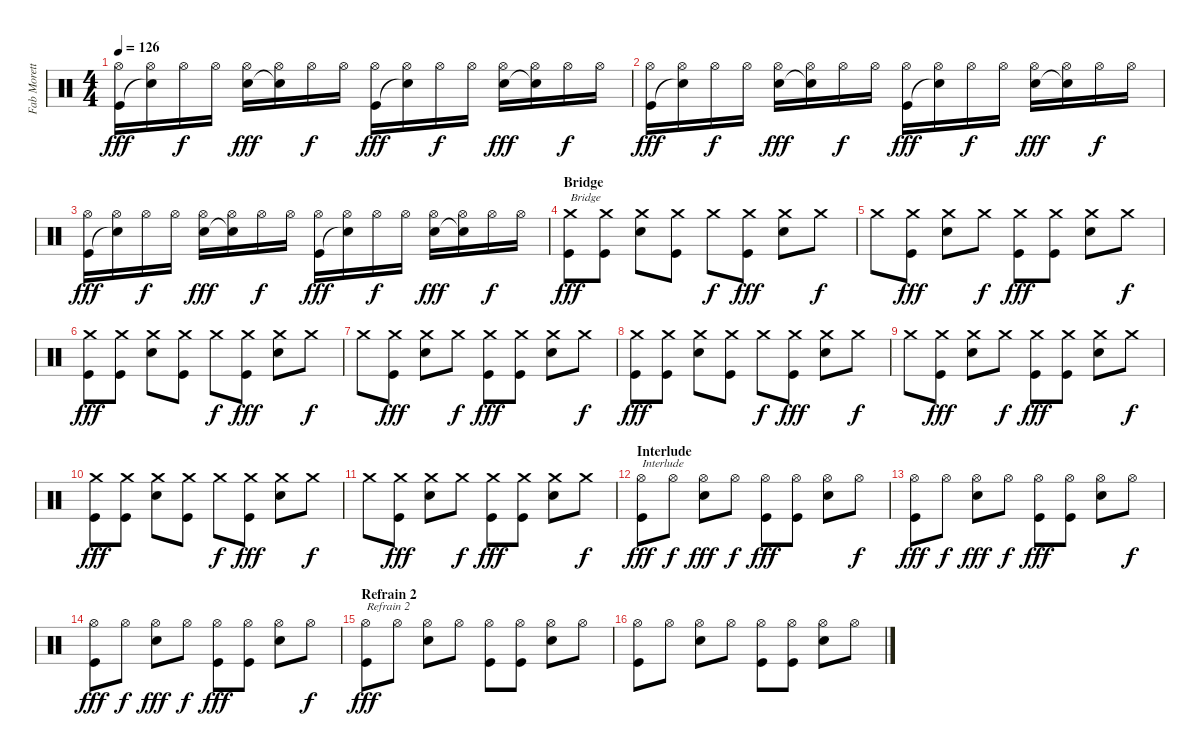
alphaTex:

\track ("Fab Moretti" "Fab Morett") {instrument percussion}
\staff {score}
\articulation defaults
\ts (4 4)
\tempo 126
\clef neutral
\ks c
("Hi-Hat (open)" "Kick (hit)").16{dy fff} ("Hi-Hat (open)" "Snare (hit)"{t}).16 "Hi-Hat (open)".16{dy f} "Hi-Hat (open)".16 ("Hi-Hat (open)" "Snare (hit) 2").16{dy fff} ("Hi-Hat (open)" "Snare (hit)"{t}).16 "Hi-Hat (open)".16{dy f} "Hi-Hat (open)".16 ("Hi-Hat (open)" "Kick (hit)").16{dy fff} ("Hi-Hat (open)" "Snare (hit)"{t}).16 "Hi-Hat (open)".16{dy f} "Hi-Hat (open)".16 ("Hi-Hat (open)" "Snare (hit) 2").16{dy fff} ("Hi-Hat (open)" "Snare (hit)"{t}).16 "Hi-Hat (open)".16{dy f} "Hi-Hat (open)".16 |
("Hi-Hat (open)" "Kick (hit)").16{dy fff} ("Hi-Hat (open)" "Snare (hit)"{t}).16 "Hi-Hat (open)".16{dy f} "Hi-Hat (open)".16 ("Hi-Hat (open)" "Snare (hit) 2").16{dy fff} ("Hi-Hat (open)" "Snare (hit)"{t}).16 "Hi-Hat (open)".16{dy f} "Hi-Hat (open)".16 ("Hi-Hat (open)" "Kick (hit)").16{dy fff} ("Hi-Hat (open)" "Snare (hit)"{t}).16 "Hi-Hat (open)".16{dy f} "Hi-Hat (open)".16 ("Hi-Hat (open)" "Snare (hit) 2").16{dy fff} ("Hi-Hat (open)" "Snare (hit)"{t}).16 "Hi-Hat (open)".16{dy f} "Hi-Hat (open)".16 |
("Hi-Hat (open)" "Kick (hit)").16{dy fff} ("Hi-Hat (open)" "Snare (hit)"{t}).16 "Hi-Hat (open)".16{dy f} "Hi-Hat (open)".16 ("Hi-Hat (open)" "Snare (hit) 2").16{dy fff} ("Hi-Hat (open)" "Snare (hit)"{t}).16 "Hi-Hat (open)".16{dy f} "Hi-Hat (open)".16 ("Hi-Hat (open)" "Kick (hit)").16{dy fff} ("Hi-Hat (open)" "Snare (hit)"{t}).16 "Hi-Hat (open)".16{dy f} "Hi-Hat (open)".16 ("Hi-Hat (open)" "Snare (hit) 2").16{dy fff} ("Hi-Hat (open)" "Snare (hit)"{t}).16 "Hi-Hat (open)".16{dy f} "Hi-Hat (open)".16 |
\section ("" "Bridge")
("Crash medium (hit)" "Kick (hit)").8{txt "Bridge" dy fff} ("Crash medium (hit)" "Kick (hit)").8 ("Crash medium (hit)" "Snare (hit) 2").8 ("Crash medium (hit)" "Kick (hit)").8 "Crash medium (hit)".8{dy f} ("Crash medium (hit)" "Kick (hit)").8{dy fff} ("Crash medium (hit)" "Snare (hit) 2").8 "Crash medium (hit)".8{dy f} |
"Crash medium (hit)".8 ("Crash medium (hit)" "Kick (hit)").8{dy fff} ("Crash medium (hit)" "Snare (hit) 2").8 "Crash medium (hit)".8{dy f} ("Crash medium (hit)" "Kick (hit)").8{dy fff} ("Crash medium (hit)" "Kick (hit)").8 ("Crash medium (hit)" "Snare (hit) 2").8 "Crash medium (hit)".8{dy f} |
("Crash medium (hit)" "Kick (hit)").8{dy fff} ("Crash medium (hit)" "Kick (hit)").8 ("Crash medium (hit)" "Snare (hit) 2").8 ("Crash medium (hit)" "Kick (hit)").8 "Crash medium (hit)".8{dy f} ("Crash medium (hit)" "Kick (hit)").8{dy fff} ("Crash medium (hit)" "Snare (hit) 2").8 "Crash medium (hit)".8{dy f} |
"Crash medium (hit)".8 ("Crash medium (hit)" "Kick (hit)").8{dy fff} ("Crash medium (hit)" "Snare (hit) 2").8 "Crash medium (hit)".8{dy f} ("Crash medium (hit)" "Kick (hit)").8{dy fff} ("Crash medium (hit)" "Kick (hit)").8 ("Crash medium (hit)" "Snare (hit) 2").8 "Crash medium (hit)".8{dy f} |
("Crash medium (hit)" "Kick (hit)").8{dy fff} ("Crash medium (hit)" "Kick (hit)").8 ("Crash medium (hit)" "Snare (hit) 2").8 ("Crash medium (hit)" "Kick (hit)").8 "Crash medium (hit)".8{dy f} ("Crash medium (hit)" "Kick (hit)").8{dy fff} ("Crash medium (hit)" "Snare (hit) 2").8 "Crash medium (hit)".8{dy f} |
"Crash medium (hit)".8 ("Crash medium (hit)" "Kick (hit)").8{dy fff} ("Crash medium (hit)" "Snare (hit) 2").8 "Crash medium (hit)".8{dy f} ("Crash medium (hit)" "Kick (hit)").8{dy fff} ("Crash medium (hit)" "Kick (hit)").8 ("Crash medium (hit)" "Snare (hit) 2").8 "Crash medium (hit)".8{dy f} |
("Crash medium (hit)" "Kick (hit)").8{dy fff} ("Crash medium (hit)" "Kick (hit)").8 ("Crash medium (hit)" "Snare (hit) 2").8 ("Crash medium (hit)" "Kick (hit)").8 "Crash medium (hit)".8{dy f} ("Crash medium (hit)" "Kick (hit)").8{dy fff} ("Crash medium (hit)" "Snare (hit) 2").8 "Crash medium (hit)".8{dy f} |
"Crash medium (hit)".8 ("Crash medium (hit)" "Kick (hit)").8{dy fff} ("Crash medium (hit)" "Snare (hit) 2").8 "Crash medium (hit)".8{dy f} ("Crash medium (hit)" "Kick (hit)").8{dy fff} ("Crash medium (hit)" "Kick (hit)").8 ("Crash medium (hit)" "Snare (hit) 2").8 "Crash medium (hit)".8{dy f} |
\section ("" "Interlude")
("Hi-Hat (open)" "Kick (hit)").8{txt "Interlude" dy fff} "Hi-Hat (open)".8{dy f} ("Hi-Hat (open)" "Snare (hit) 2").8{dy fff} "Hi-Hat (open)".8{dy f} ("Hi-Hat (open)" "Kick (hit)").8{dy fff} ("Hi-Hat (open)" "Kick (hit)").8 ("Hi-Hat (open)" "Snare (hit) 2").8 "Hi-Hat (open)".8{dy f} |
("Hi-Hat (open)" "Kick (hit)").8{dy fff} "Hi-Hat (open)".8{dy f} ("Hi-Hat (open)" "Snare (hit) 2").8{dy fff} "Hi-Hat (open)".8{dy f} ("Hi-Hat (open)" "Kick (hit)").8{dy fff} ("Hi-Hat (open)" "Kick (hit)").8 ("Hi-Hat (open)" "Snare (hit) 2").8 "Hi-Hat (open)".8{dy f} |
("Hi-Hat (open)" "Kick (hit)").8{dy fff} "Hi-Hat (open)".8{dy f} ("Hi-Hat (open)" "Snare (hit) 2").8{dy fff} "Hi-Hat (open)".8{dy f} ("Hi-Hat (open)" "Kick (hit)").8{dy fff} ("Hi-Hat (open)" "Kick (hit)").8 ("Hi-Hat (open)" "Snare (hit) 2").8 "Hi-Hat (open)".8{dy f} |
\section ("" "Refrain 2")
("Hi-Hat (open)" "Kick (hit)").8{txt "Refrain 2" dy fff} "Hi-Hat (open)".8 ("Hi-Hat (open)" "Snare (hit) 2").8 "Hi-Hat (open)".8 ("Hi-Hat (open)" "Kick (hit)").8 ("Hi-Hat (open)" "Kick (hit)").8 ("Hi-Hat (open)" "Snare (hit) 2").8 "Hi-Hat (open)".8 |
("Hi-Hat (open)" "Kick (hit)").8 "Hi-Hat (open)".8 ("Hi-Hat (open)" "Snare (hit) 2").8 "Hi-Hat (open)".8 ("Hi-Hat (open)" "Kick (hit)").8 ("Hi-Hat (open)" "Kick (hit)").8 ("Hi-Hat (open)" "Snare (hit) 2").8 "Hi-Hat (open)".8
